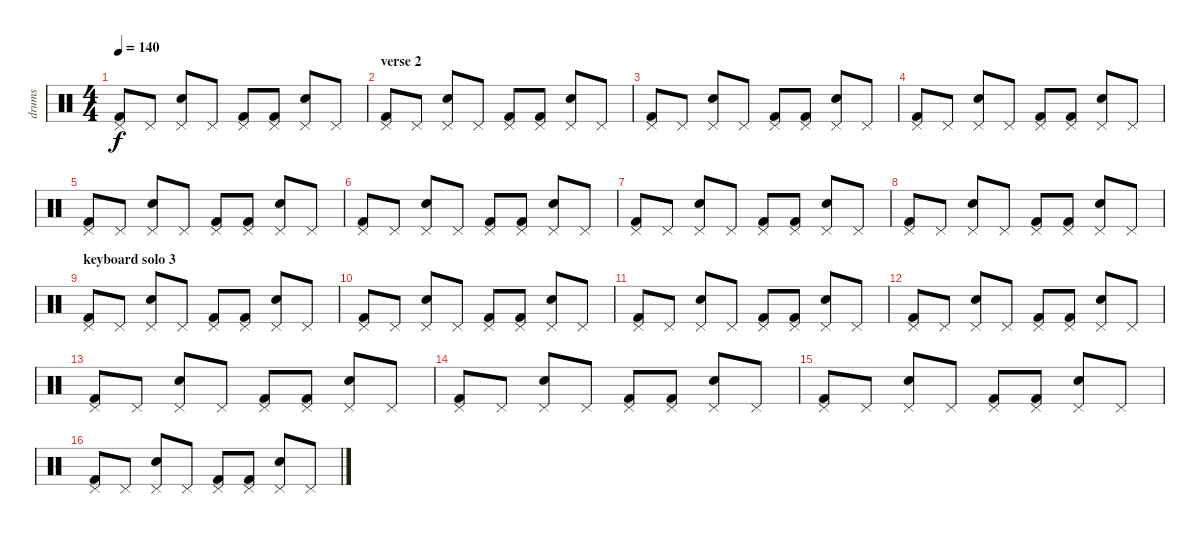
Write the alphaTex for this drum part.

\track ("drums" "drums") {instrument percussion}
\staff {score}
\articulation defaults
\ts (4 4)
\tempo 140
\clef neutral
\ks c
("Kick (hit) 2" "Pedal Hi-Hat (hit)").8{dy f} "Pedal Hi-Hat (hit)".8 ("Snare (hit) 2" "Pedal Hi-Hat (hit)").8 "Pedal Hi-Hat (hit)".8 ("Kick (hit) 2" "Pedal Hi-Hat (hit)").8 ("Kick (hit) 2" "Pedal Hi-Hat (hit)").8 ("Snare (hit) 2" "Pedal Hi-Hat (hit)").8 "Pedal Hi-Hat (hit)".8 |
\section ("" "verse 2")
("Kick (hit) 2" "Pedal Hi-Hat (hit)").8 "Pedal Hi-Hat (hit)".8 ("Snare (hit) 2" "Pedal Hi-Hat (hit)").8 "Pedal Hi-Hat (hit)".8 ("Kick (hit) 2" "Pedal Hi-Hat (hit)").8 ("Kick (hit) 2" "Pedal Hi-Hat (hit)").8 ("Snare (hit) 2" "Pedal Hi-Hat (hit)").8 "Pedal Hi-Hat (hit)".8 |
("Kick (hit) 2" "Pedal Hi-Hat (hit)").8 "Pedal Hi-Hat (hit)".8 ("Snare (hit) 2" "Pedal Hi-Hat (hit)").8 "Pedal Hi-Hat (hit)".8 ("Kick (hit) 2" "Pedal Hi-Hat (hit)").8 ("Kick (hit) 2" "Pedal Hi-Hat (hit)").8 ("Snare (hit) 2" "Pedal Hi-Hat (hit)").8 "Pedal Hi-Hat (hit)".8 |
("Kick (hit) 2" "Pedal Hi-Hat (hit)").8 "Pedal Hi-Hat (hit)".8 ("Snare (hit) 2" "Pedal Hi-Hat (hit)").8 "Pedal Hi-Hat (hit)".8 ("Kick (hit) 2" "Pedal Hi-Hat (hit)").8 ("Kick (hit) 2" "Pedal Hi-Hat (hit)").8 ("Snare (hit) 2" "Pedal Hi-Hat (hit)").8 "Pedal Hi-Hat (hit)".8 |
("Kick (hit) 2" "Pedal Hi-Hat (hit)").8 "Pedal Hi-Hat (hit)".8 ("Snare (hit) 2" "Pedal Hi-Hat (hit)").8 "Pedal Hi-Hat (hit)".8 ("Kick (hit) 2" "Pedal Hi-Hat (hit)").8 ("Kick (hit) 2" "Pedal Hi-Hat (hit)").8 ("Snare (hit) 2" "Pedal Hi-Hat (hit)").8 "Pedal Hi-Hat (hit)".8 |
("Kick (hit) 2" "Pedal Hi-Hat (hit)").8 "Pedal Hi-Hat (hit)".8 ("Snare (hit) 2" "Pedal Hi-Hat (hit)").8 "Pedal Hi-Hat (hit)".8 ("Kick (hit) 2" "Pedal Hi-Hat (hit)").8 ("Kick (hit) 2" "Pedal Hi-Hat (hit)").8 ("Snare (hit) 2" "Pedal Hi-Hat (hit)").8 "Pedal Hi-Hat (hit)".8 |
("Kick (hit) 2" "Pedal Hi-Hat (hit)").8 "Pedal Hi-Hat (hit)".8 ("Snare (hit) 2" "Pedal Hi-Hat (hit)").8 "Pedal Hi-Hat (hit)".8 ("Kick (hit) 2" "Pedal Hi-Hat (hit)").8 ("Kick (hit) 2" "Pedal Hi-Hat (hit)").8 ("Snare (hit) 2" "Pedal Hi-Hat (hit)").8 "Pedal Hi-Hat (hit)".8 |
("Kick (hit) 2" "Pedal Hi-Hat (hit)").8 "Pedal Hi-Hat (hit)".8 ("Snare (hit) 2" "Pedal Hi-Hat (hit)").8 "Pedal Hi-Hat (hit)".8 ("Kick (hit) 2" "Pedal Hi-Hat (hit)").8 ("Kick (hit) 2" "Pedal Hi-Hat (hit)").8 ("Snare (hit) 2" "Pedal Hi-Hat (hit)").8 "Pedal Hi-Hat (hit)".8 |
\section ("" "keyboard solo 3")
("Kick (hit) 2" "Pedal Hi-Hat (hit)").8 "Pedal Hi-Hat (hit)".8 ("Snare (hit) 2" "Pedal Hi-Hat (hit)").8 "Pedal Hi-Hat (hit)".8 ("Kick (hit) 2" "Pedal Hi-Hat (hit)").8 ("Kick (hit) 2" "Pedal Hi-Hat (hit)").8 ("Snare (hit) 2" "Pedal Hi-Hat (hit)").8 "Pedal Hi-Hat (hit)".8 |
("Kick (hit) 2" "Pedal Hi-Hat (hit)").8 "Pedal Hi-Hat (hit)".8 ("Snare (hit) 2" "Pedal Hi-Hat (hit)").8 "Pedal Hi-Hat (hit)".8 ("Kick (hit) 2" "Pedal Hi-Hat (hit)").8 ("Kick (hit) 2" "Pedal Hi-Hat (hit)").8 ("Snare (hit) 2" "Pedal Hi-Hat (hit)").8 "Pedal Hi-Hat (hit)".8 |
("Kick (hit) 2" "Pedal Hi-Hat (hit)").8 "Pedal Hi-Hat (hit)".8 ("Snare (hit) 2" "Pedal Hi-Hat (hit)").8 "Pedal Hi-Hat (hit)".8 ("Kick (hit) 2" "Pedal Hi-Hat (hit)").8 ("Kick (hit) 2" "Pedal Hi-Hat (hit)").8 ("Snare (hit) 2" "Pedal Hi-Hat (hit)").8 "Pedal Hi-Hat (hit)".8 |
("Kick (hit) 2" "Pedal Hi-Hat (hit)").8 "Pedal Hi-Hat (hit)".8 ("Snare (hit) 2" "Pedal Hi-Hat (hit)").8 "Pedal Hi-Hat (hit)".8 ("Kick (hit) 2" "Pedal Hi-Hat (hit)").8 ("Kick (hit) 2" "Pedal Hi-Hat (hit)").8 ("Snare (hit) 2" "Pedal Hi-Hat (hit)").8 "Pedal Hi-Hat (hit)".8 |
("Kick (hit) 2" "Pedal Hi-Hat (hit)").8 "Pedal Hi-Hat (hit)".8 ("Snare (hit) 2" "Pedal Hi-Hat (hit)").8 "Pedal Hi-Hat (hit)".8 ("Kick (hit) 2" "Pedal Hi-Hat (hit)").8 ("Kick (hit) 2" "Pedal Hi-Hat (hit)").8 ("Snare (hit) 2" "Pedal Hi-Hat (hit)").8 "Pedal Hi-Hat (hit)".8 |
("Kick (hit) 2" "Pedal Hi-Hat (hit)").8 "Pedal Hi-Hat (hit)".8 ("Snare (hit) 2" "Pedal Hi-Hat (hit)").8 "Pedal Hi-Hat (hit)".8 ("Kick (hit) 2" "Pedal Hi-Hat (hit)").8 ("Kick (hit) 2" "Pedal Hi-Hat (hit)").8 ("Snare (hit) 2" "Pedal Hi-Hat (hit)").8 "Pedal Hi-Hat (hit)".8 |
("Kick (hit) 2" "Pedal Hi-Hat (hit)").8 "Pedal Hi-Hat (hit)".8 ("Snare (hit) 2" "Pedal Hi-Hat (hit)").8 "Pedal Hi-Hat (hit)".8 ("Kick (hit) 2" "Pedal Hi-Hat (hit)").8 ("Kick (hit) 2" "Pedal Hi-Hat (hit)").8 ("Snare (hit) 2" "Pedal Hi-Hat (hit)").8 "Pedal Hi-Hat (hit)".8 |
("Kick (hit) 2" "Pedal Hi-Hat (hit)").8 "Pedal Hi-Hat (hit)".8 ("Snare (hit) 2" "Pedal Hi-Hat (hit)").8 "Pedal Hi-Hat (hit)".8 ("Kick (hit) 2" "Pedal Hi-Hat (hit)").8 ("Kick (hit) 2" "Pedal Hi-Hat (hit)").8 ("Snare (hit) 2" "Pedal Hi-Hat (hit)").8 "Pedal Hi-Hat (hit)".8
